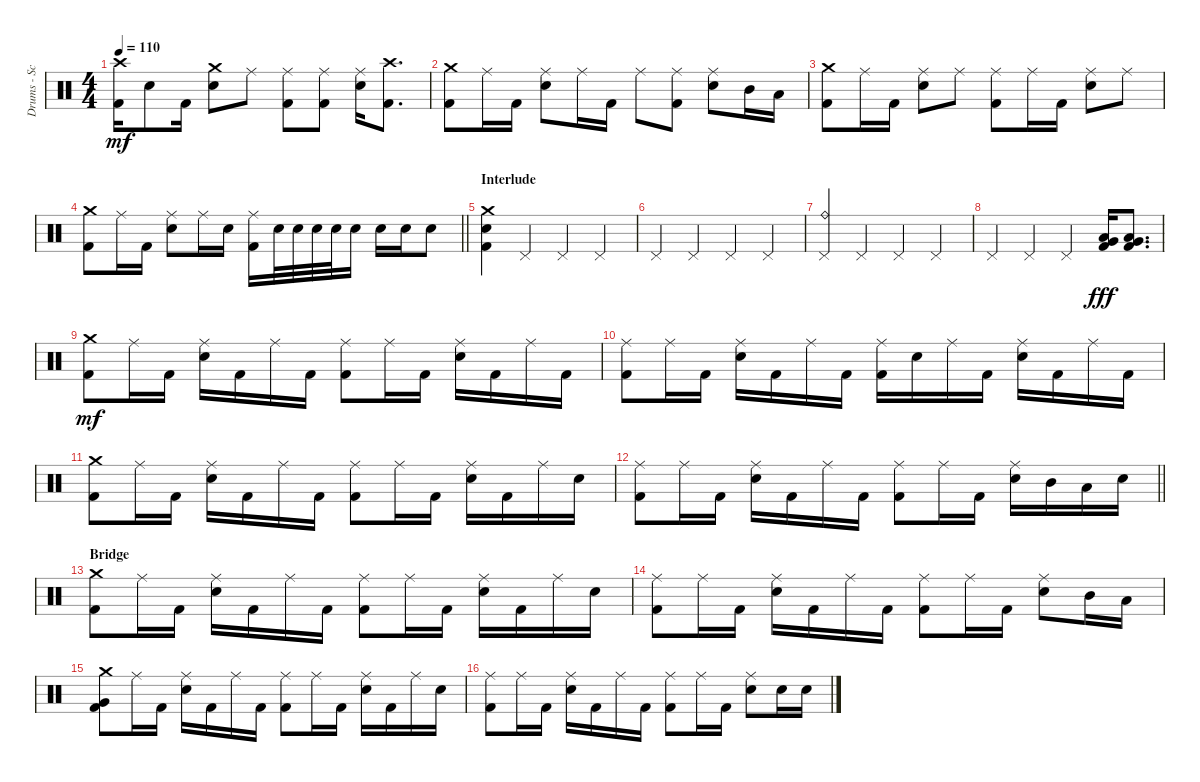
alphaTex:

\track ("Drums - Scott" "Drums - Sc") {instrument percussion}
\staff {score}
\articulation defaults
\ts (4 4)
\tempo 110
\clef neutral
\ks c
("Crash high (hit)" "Kick (hit) 2").16{dy mf} "Electric Snare (hit)".8 "Kick (hit) 2".16 ("Crash medium (hit)" "Electric Snare (hit)").8 "Ride (middle)".8 ("Ride (middle)" "Kick (hit) 2").8 ("Ride (middle)" "Kick (hit) 2").8 ("Ride (middle)" "Electric Snare (hit)").16 ("Crash high (hit)" "Kick (hit) 2").8{d} |
("Crash medium (hit)" "Kick (hit) 2").8 "Ride (middle)".16 "Kick (hit) 2".16 ("Ride (middle)" "Electric Snare (hit)").8 "Ride (middle)".16 "Kick (hit) 2".16 "Ride (middle)".8 ("Ride (middle)" "Kick (hit) 2").8 ("Ride (middle)" "Electric Snare (hit)").8 "Mid Tom (hit)".16 "Low Tom (hit)".16 |
("Crash medium (hit)" "Kick (hit) 2").8 "Ride (middle)".16 "Kick (hit) 2".16 ("Ride (middle)" "Electric Snare (hit)").8 "Ride (middle)".8 ("Ride (middle)" "Kick (hit) 2").8 "Ride (middle)".16 "Kick (hit) 2".16 ("Ride (middle)" "Electric Snare (hit)").8 "Ride (middle)".8 |
\barLineRight lightlight
("Crash medium (hit)" "Kick (hit) 2").8 "Ride (middle)".16 "Kick (hit) 2".16 ("Ride (middle)" "Electric Snare (hit)").8 "Ride (middle)".16 "Electric Snare (hit)".16 ("Ride (middle)" "Kick (hit) 2").16 "Electric Snare (hit)".32 "Electric Snare (hit)".32 "Electric Snare (hit)".32 "Electric Snare (hit)".32 "Electric Snare (hit)".16 "Electric Snare (hit)".16 "Electric Snare (hit)".16 "Electric Snare (hit)".8 |
\section ("" "Interlude")
("Crash medium (hit)" "Electric Snare (hit)" "Kick (hit) 2").4 "Pedal Hi-Hat (hit)".4 "Pedal Hi-Hat (hit)".4 "Pedal Hi-Hat (hit)".4 |
"Pedal Hi-Hat (hit)".4 "Pedal Hi-Hat (hit)".4 "Pedal Hi-Hat (hit)".4 "Pedal Hi-Hat (hit)".4 |
("Ride (bell)" "Pedal Hi-Hat (hit)").4 "Pedal Hi-Hat (hit)".4 "Pedal Hi-Hat (hit)".4 "Pedal Hi-Hat (hit)".4 |
"Pedal Hi-Hat (hit)".4 "Pedal Hi-Hat (hit)".4 "Pedal Hi-Hat (hit)".4 ("Low Tom (hit)" "Very Low Tom (hit)" "Kick (hit) 2").16{dy fff} ("Very Low Tom (hit)" "Low Floor Tom (hit)" "Kick (hit) 2").8{d} |
("Crash medium (hit)" "Kick (hit) 2").8{dy mf} "Ride (middle)".16 "Kick (hit) 2".16 ("Ride (middle)" "Electric Snare (hit)").16 "Kick (hit) 2".16 "Ride (middle)".16 "Kick (hit) 2".16 ("Ride (middle)" "Kick (hit) 2").8 "Ride (middle)".16 "Kick (hit) 2".16 ("Ride (middle)" "Electric Snare (hit)").16 "Kick (hit) 2".16 "Ride (middle)".16 "Kick (hit) 2".16 |
("Ride (middle)" "Kick (hit) 2").8 "Ride (middle)".16 "Kick (hit) 2".16 ("Ride (middle)" "Electric Snare (hit)").16 "Kick (hit) 2".16 "Ride (middle)".16 "Kick (hit) 2".16 ("Ride (middle)" "Kick (hit) 2").16 "Electric Snare (hit)".16 "Ride (middle)".16 "Kick (hit) 2".16 ("Ride (middle)" "Electric Snare (hit)").16 "Kick (hit) 2".16 "Ride (middle)".16 "Kick (hit) 2".16 |
("Crash medium (hit)" "Kick (hit) 2").8 "Ride (middle)".16 "Kick (hit) 2".16 ("Ride (middle)" "Electric Snare (hit)").16 "Kick (hit) 2".16 "Ride (middle)".16 "Kick (hit) 2".16 ("Ride (middle)" "Kick (hit) 2").8 "Ride (middle)".16 "Kick (hit) 2".16 ("Ride (middle)" "Electric Snare (hit)").16 "Kick (hit) 2".16 "Ride (middle)".16 "Electric Snare (hit)".16 |
\barLineRight lightlight
("Ride (middle)" "Kick (hit) 2").8 "Ride (middle)".16 "Kick (hit) 2".16 ("Ride (middle)" "Electric Snare (hit)").16 "Kick (hit) 2".16 "Ride (middle)".16 "Kick (hit) 2".16 ("Ride (middle)" "Kick (hit) 2").8 "Ride (middle)".16 "Kick (hit) 2".16 ("Ride (middle)" "Electric Snare (hit)").16 "Mid Tom (hit)".16 "Low Tom (hit)".16 "Electric Snare (hit)".16 |
\section ("" "Bridge")
("Crash medium (hit)" "Kick (hit) 2").8 "Ride (middle)".16 "Kick (hit) 2".16 ("Ride (middle)" "Electric Snare (hit)").16 "Kick (hit) 2".16 "Ride (middle)".16 "Kick (hit) 2".16 ("Ride (middle)" "Kick (hit) 2").8 "Ride (middle)".16 "Kick (hit) 2".16 ("Ride (middle)" "Electric Snare (hit)").16 "Kick (hit) 2".16 "Ride (middle)".16 "Electric Snare (hit)".16 |
("Ride (middle)" "Kick (hit) 2").8 "Ride (middle)".16 "Kick (hit) 2".16 ("Ride (middle)" "Electric Snare (hit)").16 "Kick (hit) 2".16 "Ride (middle)".16 "Kick (hit) 2".16 ("Ride (middle)" "Kick (hit) 2").8 "Ride (middle)".16 "Kick (hit) 2".16 ("Ride (middle)" "Electric Snare (hit)").8 "Mid Tom (hit)".16 "Low Tom (hit)".16 |
("Crash medium (hit)" "Very Low Tom (hit)" "Kick (hit) 2").8 "Ride (middle)".16 "Kick (hit) 2".16 ("Ride (middle)" "Electric Snare (hit)").16 "Kick (hit) 2".16 "Ride (middle)".16 "Kick (hit) 2".16 ("Ride (middle)" "Kick (hit) 2").8 "Ride (middle)".16 "Kick (hit) 2".16 ("Ride (middle)" "Electric Snare (hit)").16 "Kick (hit) 2".16 "Ride (middle)".16 "Electric Snare (hit)".16 |
("Ride (middle)" "Kick (hit) 2").8 "Ride (middle)".16 "Kick (hit) 2".16 ("Ride (middle)" "Electric Snare (hit)").16 "Kick (hit) 2".16 "Ride (middle)".16 "Kick (hit) 2".16 ("Ride (middle)" "Kick (hit) 2").8 "Ride (middle)".16 "Kick (hit) 2".16 ("Ride (middle)" "Electric Snare (hit)").8 "Electric Snare (hit)".16 "Electric Snare (hit)".16
